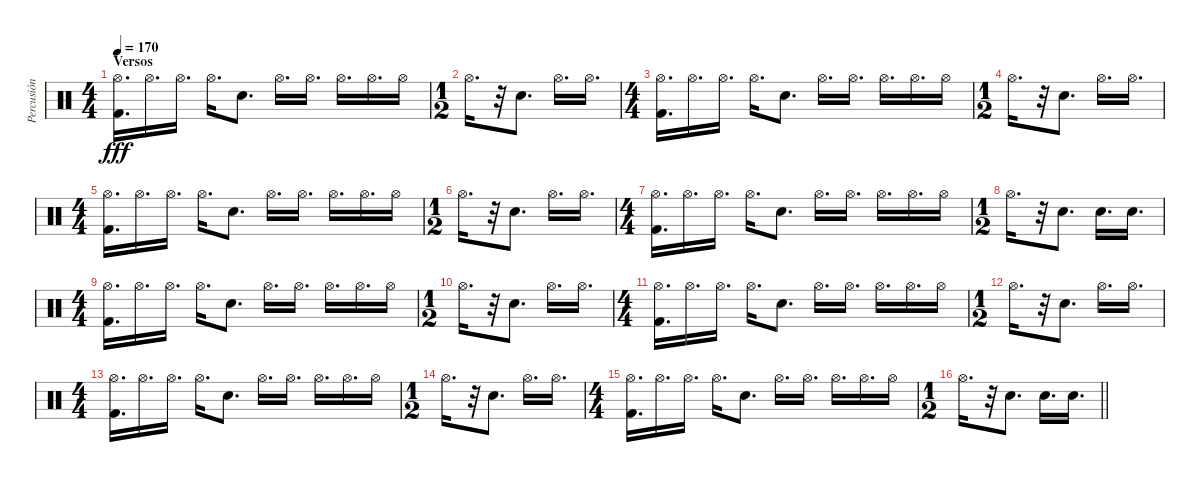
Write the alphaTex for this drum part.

\track ("Percusión" "Percusión") {instrument percussion}
\staff {score}
\articulation defaults
\ts (4 4)
\section ("" "Versos")
\tempo 170
\clef neutral
\ks c
("Hi-Hat (open)" "Kick (hit) 2").16{d dy fff} "Hi-Hat (open)".16{d} "Hi-Hat (open)".16{d} "Hi-Hat (open)".16{d} "Electric Snare (hit)".8{d} "Hi-Hat (open)".16{d} "Hi-Hat (open)".16{d} "Hi-Hat (open)".16{d} "Hi-Hat (open)".16{d} "Hi-Hat (open)".16 |
\ts (1 2)
"Hi-Hat (open)".16{d} r.32 "Electric Snare (hit)".8{d} "Hi-Hat (open)".16{d} "Hi-Hat (open)".16{d} |
\ts (4 4)
("Hi-Hat (open)" "Kick (hit) 2").16{d} "Hi-Hat (open)".16{d} "Hi-Hat (open)".16{d} "Hi-Hat (open)".16{d} "Electric Snare (hit)".8{d} "Hi-Hat (open)".16{d} "Hi-Hat (open)".16{d} "Hi-Hat (open)".16{d} "Hi-Hat (open)".16{d} "Hi-Hat (open)".16 |
\ts (1 2)
"Hi-Hat (open)".16{d} r.32 "Electric Snare (hit)".8{d} "Hi-Hat (open)".16{d} "Hi-Hat (open)".16{d} |
\ts (4 4)
("Hi-Hat (open)" "Kick (hit) 2").16{d} "Hi-Hat (open)".16{d} "Hi-Hat (open)".16{d} "Hi-Hat (open)".16{d} "Electric Snare (hit)".8{d} "Hi-Hat (open)".16{d} "Hi-Hat (open)".16{d} "Hi-Hat (open)".16{d} "Hi-Hat (open)".16{d} "Hi-Hat (open)".16 |
\ts (1 2)
"Hi-Hat (open)".16{d} r.32 "Electric Snare (hit)".8{d} "Hi-Hat (open)".16{d} "Hi-Hat (open)".16{d} |
\ts (4 4)
("Hi-Hat (open)" "Kick (hit) 2").16{d} "Hi-Hat (open)".16{d} "Hi-Hat (open)".16{d} "Hi-Hat (open)".16{d} "Electric Snare (hit)".8{d} "Hi-Hat (open)".16{d} "Hi-Hat (open)".16{d} "Hi-Hat (open)".16{d} "Hi-Hat (open)".16{d} "Hi-Hat (open)".16 |
\ts (1 2)
"Hi-Hat (open)".16{d} r.32 "Electric Snare (hit)".8{d} "Electric Snare (hit)".16{d} "Electric Snare (hit)".16{d} |
\ts (4 4)
("Hi-Hat (open)" "Kick (hit) 2").16{d} "Hi-Hat (open)".16{d} "Hi-Hat (open)".16{d} "Hi-Hat (open)".16{d} "Electric Snare (hit)".8{d} "Hi-Hat (open)".16{d} "Hi-Hat (open)".16{d} "Hi-Hat (open)".16{d} "Hi-Hat (open)".16{d} "Hi-Hat (open)".16 |
\ts (1 2)
"Hi-Hat (open)".16{d} r.32 "Electric Snare (hit)".8{d} "Hi-Hat (open)".16{d} "Hi-Hat (open)".16{d} |
\ts (4 4)
("Hi-Hat (open)" "Kick (hit) 2").16{d} "Hi-Hat (open)".16{d} "Hi-Hat (open)".16{d} "Hi-Hat (open)".16{d} "Electric Snare (hit)".8{d} "Hi-Hat (open)".16{d} "Hi-Hat (open)".16{d} "Hi-Hat (open)".16{d} "Hi-Hat (open)".16{d} "Hi-Hat (open)".16 |
\ts (1 2)
"Hi-Hat (open)".16{d} r.32 "Electric Snare (hit)".8{d} "Hi-Hat (open)".16{d} "Hi-Hat (open)".16{d} |
\ts (4 4)
("Hi-Hat (open)" "Kick (hit) 2").16{d} "Hi-Hat (open)".16{d} "Hi-Hat (open)".16{d} "Hi-Hat (open)".16{d} "Electric Snare (hit)".8{d} "Hi-Hat (open)".16{d} "Hi-Hat (open)".16{d} "Hi-Hat (open)".16{d} "Hi-Hat (open)".16{d} "Hi-Hat (open)".16 |
\ts (1 2)
"Hi-Hat (open)".16{d} r.32 "Electric Snare (hit)".8{d} "Hi-Hat (open)".16{d} "Hi-Hat (open)".16{d} |
\ts (4 4)
("Hi-Hat (open)" "Kick (hit) 2").16{d} "Hi-Hat (open)".16{d} "Hi-Hat (open)".16{d} "Hi-Hat (open)".16{d} "Electric Snare (hit)".8{d} "Hi-Hat (open)".16{d} "Hi-Hat (open)".16{d} "Hi-Hat (open)".16{d} "Hi-Hat (open)".16{d} "Hi-Hat (open)".16 |
\ts (1 2)
\barLineRight lightlight "Hi-Hat (open)".16{d}
r.32 "Electric Snare (hit)".8{d} "Electric Snare (hit)".16{d} "Electric Snare (hit)".16{d}
